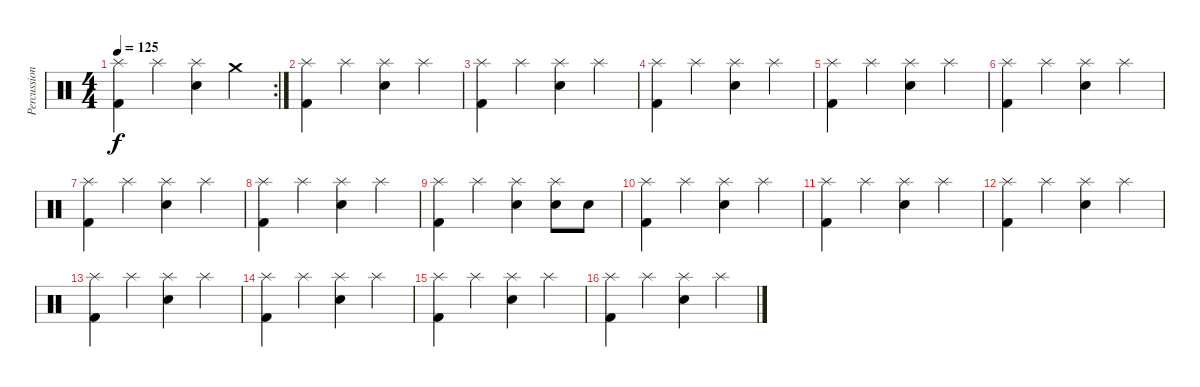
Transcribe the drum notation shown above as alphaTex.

\track ("Percussions" "Percussion") {instrument percussion}
\staff {score}
\articulation defaults
\rc 2
\ts (4 4)
\tempo 125
\clef neutral
\ks c
("Splash (hit)" "Kick (hit) 2").4{dy f} "Splash (hit)".4 ("Splash (hit)" "Electric Snare (hit)").4 "Crash medium (hit)".4 |
("Splash (hit)" "Kick (hit) 2").4 "Splash (hit)".4 ("Splash (hit)" "Electric Snare (hit)").4 "Splash (hit)".4 |
("Splash (hit)" "Kick (hit) 2").4 "Splash (hit)".4 ("Splash (hit)" "Electric Snare (hit)").4 "Splash (hit)".4 |
("Splash (hit)" "Kick (hit) 2").4 "Splash (hit)".4 ("Splash (hit)" "Electric Snare (hit)").4 "Splash (hit)".4 |
("Splash (hit)" "Kick (hit) 2").4 "Splash (hit)".4 ("Splash (hit)" "Electric Snare (hit)").4 "Splash (hit)".4 |
("Splash (hit)" "Kick (hit) 2").4 "Splash (hit)".4 ("Splash (hit)" "Electric Snare (hit)").4 "Splash (hit)".4 |
("Splash (hit)" "Kick (hit) 2").4 "Splash (hit)".4 ("Splash (hit)" "Electric Snare (hit)").4 "Splash (hit)".4 |
("Splash (hit)" "Kick (hit) 2").4 "Splash (hit)".4 ("Splash (hit)" "Electric Snare (hit)").4 "Splash (hit)".4 |
("Splash (hit)" "Kick (hit) 2").4 "Splash (hit)".4 ("Splash (hit)" "Electric Snare (hit)").4 ("Splash (hit)" "Electric Snare (hit)").8 "Electric Snare (hit)".8 |
("Splash (hit)" "Kick (hit) 2").4 "Splash (hit)".4 ("Splash (hit)" "Electric Snare (hit)").4 "Splash (hit)".4 |
("Splash (hit)" "Kick (hit) 2").4 "Splash (hit)".4 ("Splash (hit)" "Electric Snare (hit)").4 "Splash (hit)".4 |
("Splash (hit)" "Kick (hit) 2").4 "Splash (hit)".4 ("Splash (hit)" "Electric Snare (hit)").4 "Splash (hit)".4 |
("Splash (hit)" "Kick (hit) 2").4 "Splash (hit)".4 ("Splash (hit)" "Electric Snare (hit)").4 "Splash (hit)".4 |
("Splash (hit)" "Kick (hit) 2").4 "Splash (hit)".4 ("Splash (hit)" "Electric Snare (hit)").4 "Splash (hit)".4 |
("Splash (hit)" "Kick (hit) 2").4 "Splash (hit)".4 ("Splash (hit)" "Electric Snare (hit)").4 "Splash (hit)".4 |
("Splash (hit)" "Kick (hit) 2").4 "Splash (hit)".4 ("Splash (hit)" "Electric Snare (hit)").4 "Splash (hit)".4
